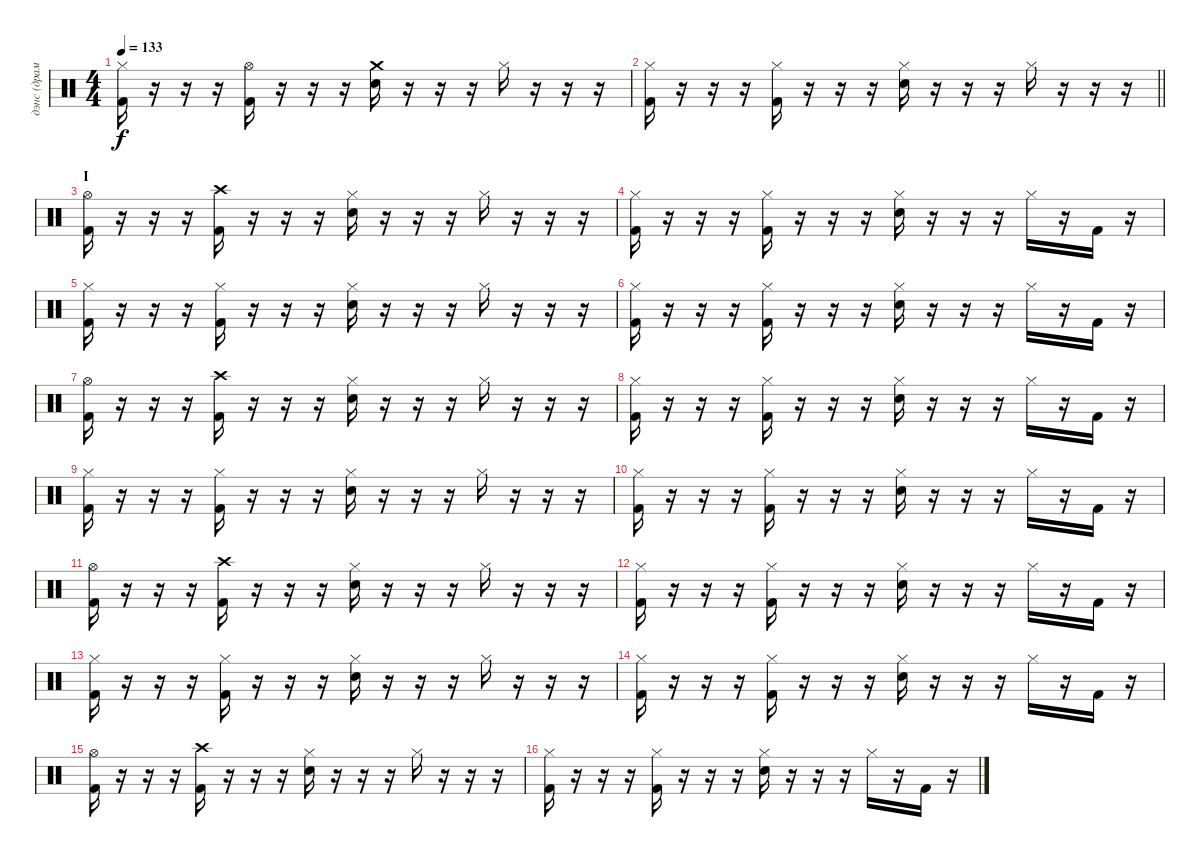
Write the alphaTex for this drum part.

\track ("дэнс (драммы)" "дэнс (драм") {instrument percussion}
\staff {score}
\articulation defaults
\ts (4 4)
\tempo 133
\clef neutral
\ks c
("Kick (hit) 2" "Hi-Hat (closed)").16{dy f} r.16 r.16 r.16 ("Kick (hit) 2" "Hi-Hat (open)").16 r.16 r.16 r.16 ("Snare (hit) 2" "Crash medium (hit)").16 r.16 r.16 r.16 "Hi-Hat (closed)".16 r.16 r.16 r.16 |
\barLineRight lightlight
("Kick (hit) 2" "Hi-Hat (closed)").16 r.16 r.16 r.16 ("Kick (hit) 2" "Hi-Hat (closed)").16 r.16 r.16 r.16 ("Snare (hit) 2" "Hi-Hat (closed)").16 r.16 r.16 r.16 "Hi-Hat (closed)".16 r.16 r.16 r.16 |
\section ("" "I")
("Kick (hit) 2" "Hi-Hat (open)").16 r.16 r.16 r.16 ("Kick (hit) 2" "Crash high (hit)").16 r.16 r.16 r.16 ("Snare (hit) 2" "Hi-Hat (closed)").16 r.16 r.16 r.16 "Hi-Hat (closed)".16 r.16 r.16 r.16 |
("Kick (hit) 2" "Hi-Hat (closed)").16 r.16 r.16 r.16 ("Kick (hit) 2" "Hi-Hat (closed)").16 r.16 r.16 r.16 ("Snare (hit) 2" "Hi-Hat (closed)").16 r.16 r.16 r.16 "Hi-Hat (closed)".16 r.16 "Kick (hit) 2".16 r.16 |
("Kick (hit) 2" "Hi-Hat (closed)").16 r.16 r.16 r.16 ("Kick (hit) 2" "Hi-Hat (closed)").16 r.16 r.16 r.16 ("Snare (hit) 2" "Hi-Hat (closed)").16 r.16 r.16 r.16 "Hi-Hat (closed)".16 r.16 r.16 r.16 |
("Kick (hit) 2" "Hi-Hat (closed)").16 r.16 r.16 r.16 ("Kick (hit) 2" "Hi-Hat (closed)").16 r.16 r.16 r.16 ("Snare (hit) 2" "Hi-Hat (closed)").16 r.16 r.16 r.16 "Hi-Hat (closed)".16 r.16 "Kick (hit) 2".16 r.16 |
("Kick (hit) 2" "Hi-Hat (open)").16 r.16 r.16 r.16 ("Kick (hit) 2" "Crash high (hit)").16 r.16 r.16 r.16 ("Snare (hit) 2" "Hi-Hat (closed)").16 r.16 r.16 r.16 "Hi-Hat (closed)".16 r.16 r.16 r.16 |
("Kick (hit) 2" "Hi-Hat (closed)").16 r.16 r.16 r.16 ("Kick (hit) 2" "Hi-Hat (closed)").16 r.16 r.16 r.16 ("Snare (hit) 2" "Hi-Hat (closed)").16 r.16 r.16 r.16 "Hi-Hat (closed)".16 r.16 "Kick (hit) 2".16 r.16 |
("Kick (hit) 2" "Hi-Hat (closed)").16 r.16 r.16 r.16 ("Kick (hit) 2" "Hi-Hat (closed)").16 r.16 r.16 r.16 ("Snare (hit) 2" "Hi-Hat (closed)").16 r.16 r.16 r.16 "Hi-Hat (closed)".16 r.16 r.16 r.16 |
("Kick (hit) 2" "Hi-Hat (closed)").16 r.16 r.16 r.16 ("Kick (hit) 2" "Hi-Hat (closed)").16 r.16 r.16 r.16 ("Snare (hit) 2" "Hi-Hat (closed)").16 r.16 r.16 r.16 "Hi-Hat (closed)".16 r.16 "Kick (hit) 2".16 r.16 |
("Kick (hit) 2" "Hi-Hat (open)").16 r.16 r.16 r.16 ("Kick (hit) 2" "Crash high (hit)").16 r.16 r.16 r.16 ("Snare (hit) 2" "Hi-Hat (closed)").16 r.16 r.16 r.16 "Hi-Hat (closed)".16 r.16 r.16 r.16 |
("Kick (hit) 2" "Hi-Hat (closed)").16 r.16 r.16 r.16 ("Kick (hit) 2" "Hi-Hat (closed)").16 r.16 r.16 r.16 ("Snare (hit) 2" "Hi-Hat (closed)").16 r.16 r.16 r.16 "Hi-Hat (closed)".16 r.16 "Kick (hit) 2".16 r.16 |
("Kick (hit) 2" "Hi-Hat (closed)").16 r.16 r.16 r.16 ("Kick (hit) 2" "Hi-Hat (closed)").16 r.16 r.16 r.16 ("Snare (hit) 2" "Hi-Hat (closed)").16 r.16 r.16 r.16 "Hi-Hat (closed)".16 r.16 r.16 r.16 |
("Kick (hit) 2" "Hi-Hat (closed)").16 r.16 r.16 r.16 ("Kick (hit) 2" "Hi-Hat (closed)").16 r.16 r.16 r.16 ("Snare (hit) 2" "Hi-Hat (closed)").16 r.16 r.16 r.16 "Hi-Hat (closed)".16 r.16 "Kick (hit) 2".16 r.16 |
("Kick (hit) 2" "Hi-Hat (open)").16 r.16 r.16 r.16 ("Kick (hit) 2" "Crash high (hit)").16 r.16 r.16 r.16 ("Snare (hit) 2" "Hi-Hat (closed)").16 r.16 r.16 r.16 "Hi-Hat (closed)".16 r.16 r.16 r.16 |
("Kick (hit) 2" "Hi-Hat (closed)").16 r.16 r.16 r.16 ("Kick (hit) 2" "Hi-Hat (closed)").16 r.16 r.16 r.16 ("Snare (hit) 2" "Hi-Hat (closed)").16 r.16 r.16 r.16 "Hi-Hat (closed)".16 r.16 "Kick (hit) 2".16 r.16
